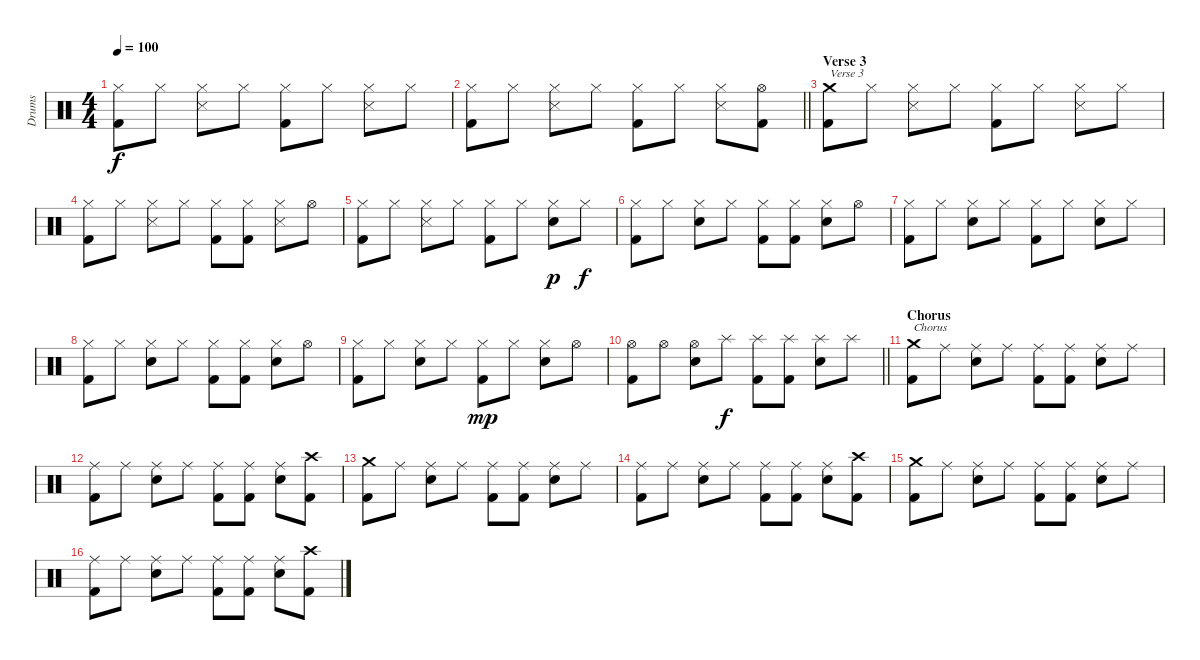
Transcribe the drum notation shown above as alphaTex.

\track ("Drums" "Drums") {instrument percussion}
\staff {score}
\articulation defaults
\ts (4 4)
\tempo 100
\clef neutral
\ks c
("Kick (hit) 2" "Hi-Hat (closed)").8{dy f} "Hi-Hat (closed)".8 ("Snare (side stick) 3" "Hi-Hat (closed)").8 "Hi-Hat (closed)".8 ("Kick (hit) 2" "Hi-Hat (closed)").8 "Hi-Hat (closed)".8 ("Snare (side stick) 3" "Hi-Hat (closed)").8 "Hi-Hat (closed)".8 |
\barLineRight lightlight
("Kick (hit) 2" "Hi-Hat (closed)").8 "Hi-Hat (closed)".8 ("Snare (side stick) 3" "Hi-Hat (closed)").8 "Hi-Hat (closed)".8 ("Kick (hit) 2" "Hi-Hat (closed)").8 "Hi-Hat (closed)".8 ("Snare (side stick) 3" "Hi-Hat (closed)").8 ("Kick (hit) 2" "Hi-Hat (open)").8 |
\section ("" "Verse 3")
("Kick (hit) 2" "Crash medium (hit)").8{txt "Verse 3"} "Hi-Hat (closed)".8 ("Snare (side stick) 3" "Hi-Hat (closed)").8 "Hi-Hat (closed)".8 ("Kick (hit) 2" "Hi-Hat (closed)").8 "Hi-Hat (closed)".8 ("Snare (side stick) 3" "Hi-Hat (closed)").8 "Hi-Hat (closed)".8 |
("Kick (hit) 2" "Hi-Hat (closed)").8 "Hi-Hat (closed)".8 ("Snare (side stick) 3" "Hi-Hat (closed)").8 "Hi-Hat (closed)".8 ("Kick (hit) 2" "Hi-Hat (closed)").8 ("Kick (hit) 2" "Hi-Hat (closed)").8 ("Snare (side stick) 3" "Hi-Hat (closed)").8 "Hi-Hat (open)".8 |
("Kick (hit) 2" "Hi-Hat (closed)").8 "Hi-Hat (closed)".8 ("Snare (side stick) 3" "Hi-Hat (closed)").8 "Hi-Hat (closed)".8 ("Kick (hit) 2" "Hi-Hat (closed)").8 "Hi-Hat (closed)".8 ("Electric Snare (hit)" "Hi-Hat (closed)").8{dy p} "Hi-Hat (closed)".8{dy f} |
("Kick (hit) 2" "Hi-Hat (closed)").8 "Hi-Hat (closed)".8 ("Electric Snare (hit)" "Hi-Hat (closed)").8 "Hi-Hat (closed)".8 ("Kick (hit) 2" "Hi-Hat (closed)").8 ("Kick (hit) 2" "Hi-Hat (closed)").8 ("Electric Snare (hit)" "Hi-Hat (closed)").8 "Hi-Hat (open)".8 |
("Kick (hit) 2" "Hi-Hat (closed)").8 "Hi-Hat (closed)".8 ("Electric Snare (hit)" "Hi-Hat (closed)").8 "Hi-Hat (closed)".8 ("Kick (hit) 2" "Hi-Hat (closed)").8 "Hi-Hat (closed)".8 ("Electric Snare (hit)" "Hi-Hat (closed)").8 "Hi-Hat (closed)".8 |
("Kick (hit) 2" "Hi-Hat (closed)").8 "Hi-Hat (closed)".8 ("Electric Snare (hit)" "Hi-Hat (closed)").8 "Hi-Hat (closed)".8 ("Kick (hit) 2" "Hi-Hat (closed)").8 ("Kick (hit) 2" "Hi-Hat (closed)").8 ("Electric Snare (hit)" "Hi-Hat (closed)").8 "Hi-Hat (open)".8 |
("Kick (hit) 2" "Hi-Hat (closed)").8 "Hi-Hat (closed)".8 ("Electric Snare (hit)" "Hi-Hat (closed)").8 "Hi-Hat (closed)".8 ("Kick (hit) 2" "Hi-Hat (closed)").8{dy mp} "Hi-Hat (closed)".8 ("Electric Snare (hit)" "Hi-Hat (closed)").8 "Hi-Hat (open)".8 |
\barLineRight lightlight
("Kick (hit) 2" "Hi-Hat (open)").8 "Hi-Hat (open)".8 ("Electric Snare (hit)" "Hi-Hat (open)").8 "Splash (hit)".8{dy f} ("Kick (hit) 2" "Splash (hit)").8 ("Kick (hit) 2" "Splash (hit)").8 ("Electric Snare (hit)" "Splash (hit)").8 "Splash (hit)".8 |
\section ("" "Chorus ")
("Kick (hit) 2" "Crash medium (hit)").8{txt "Chorus "} "Ride (middle)".8 ("Electric Snare (hit)" "Ride (middle)").8 "Ride (middle)".8 ("Kick (hit) 2" "Ride (middle)").8 ("Kick (hit) 2" "Ride (middle)").8 ("Electric Snare (hit)" "Ride (middle)").8 "Ride (middle)".8 |
("Kick (hit) 2" "Ride (middle)").8 "Ride (middle)".8 ("Electric Snare (hit)" "Ride (middle)").8 "Ride (middle)".8 ("Kick (hit) 2" "Ride (middle)").8 ("Kick (hit) 2" "Ride (middle)").8 ("Electric Snare (hit)" "Ride (middle)").8 ("Kick (hit) 2" "Crash high (hit)").8 |
("Kick (hit) 2" "Crash medium (hit)").8 "Ride (middle)".8 ("Electric Snare (hit)" "Ride (middle)").8 "Ride (middle)".8 ("Kick (hit) 2" "Ride (middle)").8 ("Kick (hit) 2" "Ride (middle)").8 ("Electric Snare (hit)" "Ride (middle)").8 "Ride (middle)".8 |
("Kick (hit) 2" "Ride (middle)").8 "Ride (middle)".8 ("Electric Snare (hit)" "Ride (middle)").8 "Ride (middle)".8 ("Kick (hit) 2" "Ride (middle)").8 ("Kick (hit) 2" "Ride (middle)").8 ("Electric Snare (hit)" "Ride (middle)").8 ("Kick (hit) 2" "Crash high (hit)").8 |
("Kick (hit) 2" "Crash medium (hit)").8 "Ride (middle)".8 ("Electric Snare (hit)" "Ride (middle)").8 "Ride (middle)".8 ("Kick (hit) 2" "Ride (middle)").8 ("Kick (hit) 2" "Ride (middle)").8 ("Electric Snare (hit)" "Ride (middle)").8 "Ride (middle)".8 |
("Kick (hit) 2" "Ride (middle)").8 "Ride (middle)".8 ("Electric Snare (hit)" "Ride (middle)").8 "Ride (middle)".8 ("Kick (hit) 2" "Ride (middle)").8 ("Kick (hit) 2" "Ride (middle)").8 ("Electric Snare (hit)" "Ride (middle)").8 ("Kick (hit) 2" "Crash high (hit)").8
